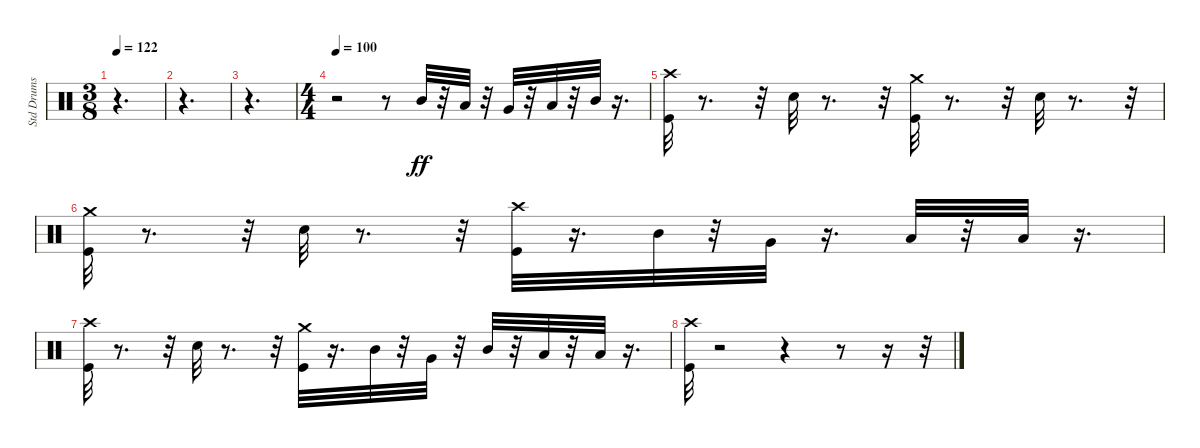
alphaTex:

\track ("Std Drums" "Std Drums") {instrument percussion}
\staff {score}
\articulation defaults
\ts (3 8)
\tempo 122
\clef neutral
\ks c
r.4{d dy ff} |
r.4{d} |
r.4{d} |
\ts (4 4)
\tempo 100
r.2 r.8 "Mid Tom (hit)".32 r.32 "Low Tom (hit)".32 r.32 "Very Low Tom (hit)".32 r.32 "Low Tom (hit)".32 r.32 "Mid Tom (hit)".32 r.16{d} |
("Kick (hit)" "Crash high (hit)").32 r.8{d} r.32 "Snare (hit) 2".32 r.8{d} r.32 ("Crash medium (hit)" "Kick (hit)").32 r.8{d} r.32 "Snare (hit) 2".32 r.8{d} r.32 |
("Kick (hit)" "Crash medium (hit)").32 r.8{d} r.32 "Snare (hit) 2".32 r.8{d} r.32 ("Kick (hit)" "Crash high (hit)").32 r.16{d} "Mid Tom (hit)".32 r.32 "Very Low Tom (hit)".32 r.16{d} "Low Tom (hit)".32 r.32 "Low Tom (hit)".32 r.16{d} |
("Crash high (hit)" "Kick (hit)").32 r.8{d} r.32 "Snare (hit) 2".32 r.8{d} r.32 ("Crash medium (hit)" "Kick (hit)").32 r.16{d} "Mid Tom (hit)".32 r.32 "Very Low Tom (hit)".32 r.32 "Mid Tom (hit)".32 r.32 "Low Tom (hit)".32 r.32 "Low Tom (hit)".32 r.16{d} |
("Crash high (hit)" "Kick (hit)").32 r.2 r.4 r.8 r.16 r.32
